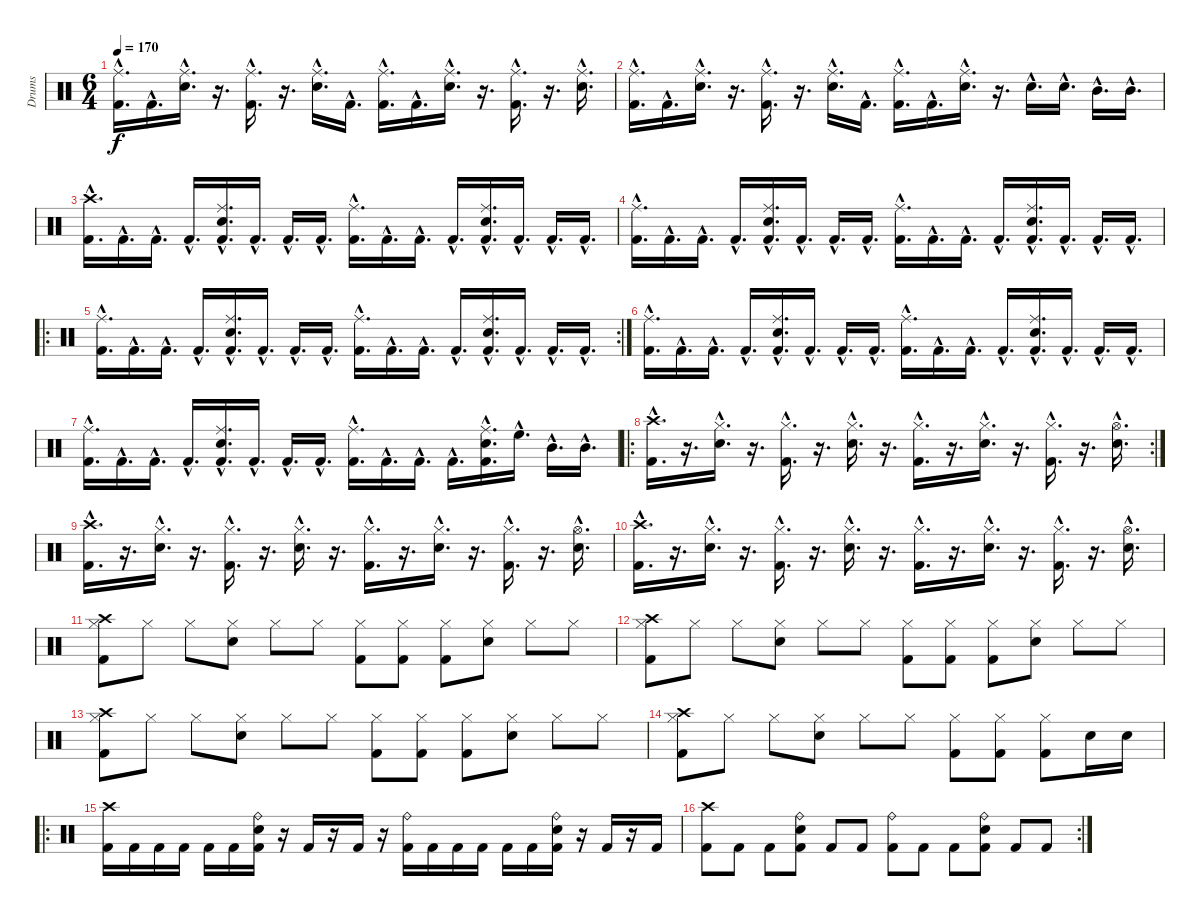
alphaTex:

\track ("Drums" "Drums") {instrument percussion}
\staff {score}
\articulation defaults
\ts (6 4)
\tempo 170
\clef neutral
\ks c
("Kick (hit) 2"{hac} "Ride (middle)"{hac}).16{d dy f} "Kick (hit) 2"{hac}.16{d} ("Snare (hit) 2"{hac} "Ride (middle)"{hac}).16{d} r.16{d} ("Kick (hit) 2"{hac} "Ride (middle)"{hac}).16{d} r.16{d} ("Snare (hit) 2"{hac} "Ride (middle)"{hac}).16{d} "Kick (hit) 2"{hac}.16{d} ("Kick (hit) 2"{hac} "Ride (middle)"{hac}).16{d} "Kick (hit) 2"{hac}.16{d} ("Snare (hit) 2"{hac} "Ride (middle)"{hac}).16{d} r.16{d} ("Kick (hit) 2"{hac} "Ride (middle)"{hac}).16{d} r.16{d} ("Snare (hit) 2"{hac} "Ride (middle)"{hac}).16{d} |
("Kick (hit) 2"{hac} "Ride (middle)"{hac}).16{d} "Kick (hit) 2"{hac}.16{d} ("Snare (hit) 2"{hac} "Ride (middle)"{hac}).16{d} r.16{d} ("Kick (hit) 2"{hac} "Ride (middle)"{hac}).16{d} r.16{d} ("Snare (hit) 2"{hac} "Ride (middle)"{hac}).16{d} "Kick (hit) 2"{hac}.16{d} ("Kick (hit) 2"{hac} "Ride (middle)"{hac}).16{d} "Kick (hit) 2"{hac}.16{d} ("Snare (hit) 2"{hac} "Ride (middle)"{hac}).16{d} r.16{d} "Snare (hit) 2"{hac}.16{d} "Snare (hit) 2"{hac}.16{d} "Mid Tom (hit)"{hac}.16{d} "Mid Tom (hit)"{hac}.16{d} |
("Crash high (hit)"{hac} "Kick (hit) 2"{hac}).16{d} "Kick (hit) 2"{hac}.16{d} "Kick (hit) 2"{hac}.16{d} "Kick (hit) 2"{hac}.16{d} ("Ride (middle)"{hac} "Snare (hit) 2"{hac} "Kick (hit) 2"{hac}).16{d} "Kick (hit) 2"{hac}.16{d} "Kick (hit) 2"{hac}.16{d} "Kick (hit) 2"{hac}.16{d} ("Ride (middle)"{hac} "Kick (hit) 2"{hac}).16{d} "Kick (hit) 2"{hac}.16{d} "Kick (hit) 2"{hac}.16{d} "Kick (hit) 2"{hac}.16{d} ("Ride (middle)"{hac} "Snare (hit) 2"{hac} "Kick (hit) 2"{hac}).16{d} "Kick (hit) 2"{hac}.16{d} "Kick (hit) 2"{hac}.16{d} "Kick (hit) 2"{hac}.16{d} |
("Ride (middle)"{hac} "Kick (hit) 2"{hac}).16{d} "Kick (hit) 2"{hac}.16{d} "Kick (hit) 2"{hac}.16{d} "Kick (hit) 2"{hac}.16{d} ("Ride (middle)"{hac} "Snare (hit) 2"{hac} "Kick (hit) 2"{hac}).16{d} "Kick (hit) 2"{hac}.16{d} "Kick (hit) 2"{hac}.16{d} "Kick (hit) 2"{hac}.16{d} ("Ride (middle)"{hac} "Kick (hit) 2"{hac}).16{d} "Kick (hit) 2"{hac}.16{d} "Kick (hit) 2"{hac}.16{d} "Kick (hit) 2"{hac}.16{d} ("Ride (middle)"{hac} "Snare (hit) 2"{hac} "Kick (hit) 2"{hac}).16{d} "Kick (hit) 2"{hac}.16{d} "Kick (hit) 2"{hac}.16{d} "Kick (hit) 2"{hac}.16{d} |
\ro
\rc 2
("Ride (middle)"{hac} "Kick (hit) 2"{hac}).16{d} "Kick (hit) 2"{hac}.16{d} "Kick (hit) 2"{hac}.16{d} "Kick (hit) 2"{hac}.16{d} ("Ride (middle)"{hac} "Snare (hit) 2"{hac} "Kick (hit) 2"{hac}).16{d} "Kick (hit) 2"{hac}.16{d} "Kick (hit) 2"{hac}.16{d} "Kick (hit) 2"{hac}.16{d} ("Ride (middle)"{hac} "Kick (hit) 2"{hac}).16{d} "Kick (hit) 2"{hac}.16{d} "Kick (hit) 2"{hac}.16{d} "Kick (hit) 2"{hac}.16{d} ("Ride (middle)"{hac} "Snare (hit) 2"{hac} "Kick (hit) 2"{hac}).16{d} "Kick (hit) 2"{hac}.16{d} "Kick (hit) 2"{hac}.16{d} "Kick (hit) 2"{hac}.16{d} |
("Ride (middle)"{hac} "Kick (hit) 2"{hac}).16{d} "Kick (hit) 2"{hac}.16{d} "Kick (hit) 2"{hac}.16{d} "Kick (hit) 2"{hac}.16{d} ("Ride (middle)"{hac} "Snare (hit) 2"{hac} "Kick (hit) 2"{hac}).16{d} "Kick (hit) 2"{hac}.16{d} "Kick (hit) 2"{hac}.16{d} "Kick (hit) 2"{hac}.16{d} ("Ride (middle)"{hac} "Kick (hit) 2"{hac}).16{d} "Kick (hit) 2"{hac}.16{d} "Kick (hit) 2"{hac}.16{d} "Kick (hit) 2"{hac}.16{d} ("Ride (middle)"{hac} "Snare (hit) 2"{hac} "Kick (hit) 2"{hac}).16{d} "Kick (hit) 2"{hac}.16{d} "Kick (hit) 2"{hac}.16{d} "Kick (hit) 2"{hac}.16{d} |
("Ride (middle)"{hac} "Kick (hit) 2"{hac}).16{d} "Kick (hit) 2"{hac}.16{d} "Kick (hit) 2"{hac}.16{d} "Kick (hit) 2"{hac}.16{d} ("Ride (middle)"{hac} "Snare (hit) 2"{hac} "Kick (hit) 2"{hac}).16{d} "Kick (hit) 2"{hac}.16{d} "Kick (hit) 2"{hac}.16{d} "Kick (hit) 2"{hac}.16{d} ("Ride (middle)"{hac} "Kick (hit) 2"{hac}).16{d} "Kick (hit) 2"{hac}.16{d} "Kick (hit) 2"{hac}.16{d} "Kick (hit) 2"{hac}.16{d} ("Ride (middle)"{hac} "Snare (hit) 2"{hac} "Kick (hit) 2"{hac}).16{d} "High Floor Tom (hit)"{hac}.16{d} "Mid Tom (hit)"{hac}.16{d} "Mid Tom (hit)"{hac}.16{d} |
\ro
\rc 2
("Kick (hit) 2"{hac} "Crash high (hit)"{hac}).16{d} r.16{d} ("Snare (hit) 2"{hac} "Hi-Hat (closed)"{hac}).16{d} r.16{d} ("Kick (hit) 2"{hac} "Hi-Hat (closed)"{hac}).16{d} r.16{d} ("Snare (hit) 2"{hac} "Hi-Hat (closed)"{hac}).16{d} r.16{d} ("Kick (hit) 2"{hac} "Hi-Hat (closed)"{hac}).16{d} r.16{d} ("Snare (hit) 2"{hac} "Hi-Hat (closed)"{hac}).16{d} r.16{d} ("Kick (hit) 2"{hac} "Hi-Hat (closed)"{hac}).16{d} r.16{d} ("Snare (hit) 2"{hac} "Hi-Hat (open)"{hac}).16{d} |
("Kick (hit) 2"{hac} "Crash high (hit)"{hac}).16{d} r.16{d} ("Snare (hit) 2"{hac} "Hi-Hat (closed)"{hac}).16{d} r.16{d} ("Kick (hit) 2"{hac} "Hi-Hat (closed)"{hac}).16{d} r.16{d} ("Snare (hit) 2"{hac} "Hi-Hat (closed)"{hac}).16{d} r.16{d} ("Kick (hit) 2"{hac} "Hi-Hat (closed)"{hac}).16{d} r.16{d} ("Snare (hit) 2"{hac} "Hi-Hat (closed)"{hac}).16{d} r.16{d} ("Kick (hit) 2"{hac} "Hi-Hat (closed)"{hac}).16{d} r.16{d} ("Snare (hit) 2"{hac} "Hi-Hat (open)"{hac}).16{d} |
("Kick (hit) 2"{hac} "Crash high (hit)"{hac}).16{d} r.16{d} ("Snare (hit) 2"{hac} "Hi-Hat (closed)"{hac}).16{d} r.16{d} ("Kick (hit) 2"{hac} "Hi-Hat (closed)"{hac}).16{d} r.16{d} ("Snare (hit) 2"{hac} "Hi-Hat (closed)"{hac}).16{d} r.16{d} ("Kick (hit) 2"{hac} "Hi-Hat (closed)"{hac}).16{d} r.16{d} ("Snare (hit) 2"{hac} "Hi-Hat (closed)"{hac}).16{d} r.16{d} ("Kick (hit) 2"{hac} "Hi-Hat (closed)"{hac}).16{d} r.16{d} ("Snare (hit) 2"{hac} "Hi-Hat (open)"{hac}).16{d} |
("Crash high (hit)" "Kick (hit) 2" "Hi-Hat (closed)").8 "Hi-Hat (closed)".8 "Hi-Hat (closed)".8 ("Snare (hit) 2" "Hi-Hat (closed)").8 "Hi-Hat (closed)".8 "Hi-Hat (closed)".8 ("Kick (hit) 2" "Hi-Hat (closed)").8 ("Kick (hit) 2" "Hi-Hat (closed)").8 ("Kick (hit) 2" "Hi-Hat (closed)").8 ("Snare (hit) 2" "Hi-Hat (closed)").8 "Hi-Hat (closed)".8 "Hi-Hat (closed)".8 |
("Crash high (hit)" "Kick (hit) 2" "Hi-Hat (closed)").8 "Hi-Hat (closed)".8 "Hi-Hat (closed)".8 ("Snare (hit) 2" "Hi-Hat (closed)").8 "Hi-Hat (closed)".8 "Hi-Hat (closed)".8 ("Kick (hit) 2" "Hi-Hat (closed)").8 ("Kick (hit) 2" "Hi-Hat (closed)").8 ("Kick (hit) 2" "Hi-Hat (closed)").8 ("Snare (hit) 2" "Hi-Hat (closed)").8 "Hi-Hat (closed)".8 "Hi-Hat (closed)".8 |
("Crash high (hit)" "Kick (hit) 2" "Hi-Hat (closed)").8 "Hi-Hat (closed)".8 "Hi-Hat (closed)".8 ("Snare (hit) 2" "Hi-Hat (closed)").8 "Hi-Hat (closed)".8 "Hi-Hat (closed)".8 ("Kick (hit) 2" "Hi-Hat (closed)").8 ("Kick (hit) 2" "Hi-Hat (closed)").8 ("Kick (hit) 2" "Hi-Hat (closed)").8 ("Snare (hit) 2" "Hi-Hat (closed)").8 "Hi-Hat (closed)".8 "Hi-Hat (closed)".8 |
("Crash high (hit)" "Kick (hit) 2" "Hi-Hat (closed)").8 "Hi-Hat (closed)".8 "Hi-Hat (closed)".8 ("Snare (hit) 2" "Hi-Hat (closed)").8 "Hi-Hat (closed)".8 "Hi-Hat (closed)".8 ("Kick (hit) 2" "Hi-Hat (closed)").8 ("Kick (hit) 2" "Hi-Hat (closed)").8 ("Kick (hit) 2" "Hi-Hat (closed)").8 "Snare (hit) 2".16 "Snare (hit) 2".16 |
\ro
("Crash high (hit)" "Kick (hit) 2").16 "Kick (hit) 2".16 "Kick (hit) 2".16 "Kick (hit) 2".16 "Kick (hit) 2".16 "Kick (hit) 2".16 ("Ride (bell)" "Snare (hit) 2" "Kick (hit) 2").16 r.16 "Kick (hit) 2".16 r.16 "Kick (hit) 2".16 r.16 ("Ride (bell)" "Kick (hit) 2").16 "Kick (hit) 2".16 "Kick (hit) 2".16 "Kick (hit) 2".16 "Kick (hit) 2".16 "Kick (hit) 2".16 ("Ride (bell)" "Snare (hit) 2" "Kick (hit) 2").16 r.16 "Kick (hit) 2".16 r.16 "Kick (hit) 2".16 |
\rc 2
("Crash high (hit)" "Kick (hit) 2").8 "Kick (hit) 2".8 "Kick (hit) 2".8 ("Kick (hit) 2" "Snare (hit) 2" "Ride (bell)").8 "Kick (hit) 2".8 "Kick (hit) 2".8 ("Kick (hit) 2" "Ride (bell)").8 "Kick (hit) 2".8 "Kick (hit) 2".8 ("Kick (hit) 2" "Snare (hit) 2" "Ride (bell)").8 "Kick (hit) 2".8 "Kick (hit) 2".8
